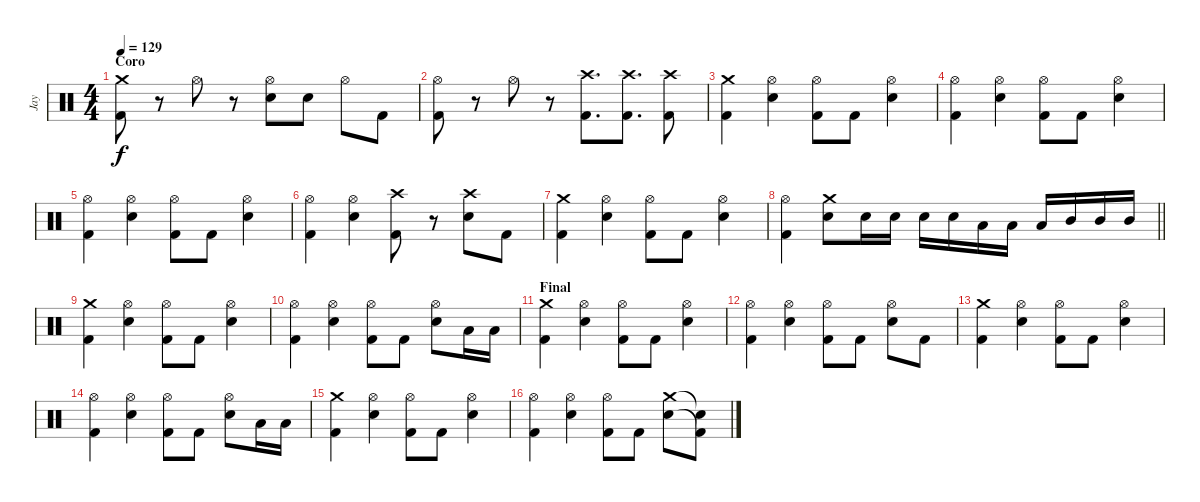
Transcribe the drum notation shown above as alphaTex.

\track ("Jay" "Jay") {instrument percussion}
\staff {score}
\articulation defaults
\ts (4 4)
\section ("" "Coro")
\tempo 129
\clef neutral
\ks c
("Crash medium (hit)" "Kick (hit) 2").8{dy f} r.8 "Hi-Hat (open)".8 r.8 ("Hi-Hat (open)" "Electric Snare (hit)").8 "Electric Snare (hit)".8 "Hi-Hat (open)".8 "Kick (hit) 2".8 |
("Hi-Hat (open)" "Kick (hit) 2").8 r.8 "Hi-Hat (open)".8 r.8 ("Crash high (hit)" "Kick (hit) 2").8{d} ("Crash high (hit)" "Kick (hit) 2").8{d} ("Crash high (hit)" "Kick (hit) 2").8 |
("Crash medium (hit)" "Kick (hit) 2").4 ("Hi-Hat (open)" "Electric Snare (hit)").4 ("Hi-Hat (open)" "Kick (hit) 2").8 "Kick (hit) 2".8 ("Hi-Hat (open)" "Electric Snare (hit)").4 |
("Hi-Hat (open)" "Kick (hit) 2").4 ("Hi-Hat (open)" "Electric Snare (hit)").4 ("Hi-Hat (open)" "Kick (hit) 2").8 "Kick (hit) 2".8 ("Hi-Hat (open)" "Electric Snare (hit)").4 |
("Hi-Hat (open)" "Kick (hit) 2").4 ("Hi-Hat (open)" "Electric Snare (hit)").4 ("Hi-Hat (open)" "Kick (hit) 2").8 "Kick (hit) 2".8 ("Hi-Hat (open)" "Electric Snare (hit)").4 |
("Hi-Hat (open)" "Kick (hit) 2").4 ("Hi-Hat (open)" "Electric Snare (hit)").4 ("Crash high (hit)" "Kick (hit) 2").8 r.8 ("Crash high (hit)" "Electric Snare (hit)").8 "Kick (hit) 2".8 |
("Crash medium (hit)" "Kick (hit) 2").4 ("Hi-Hat (open)" "Electric Snare (hit)").4 ("Hi-Hat (open)" "Kick (hit) 2").8 "Kick (hit) 2".8 ("Hi-Hat (open)" "Electric Snare (hit)").4 |
\barLineRight lightlight
("Hi-Hat (open)" "Kick (hit) 2").4 ("Crash medium (hit)" "Electric Snare (hit)").8 "Electric Snare (hit)".16 "Electric Snare (hit)".16 "Electric Snare (hit)".16 "Electric Snare (hit)".16 "Low Tom (hit)".16 "Low Tom (hit)".16 "Low Tom (hit)".16 "Mid Tom (hit)".16 "Mid Tom (hit)".16 "Mid Tom (hit)".16 |
("Crash medium (hit)" "Kick (hit) 2").4 ("Hi-Hat (open)" "Electric Snare (hit)").4 ("Hi-Hat (open)" "Kick (hit) 2").8 "Kick (hit) 2".8 ("Hi-Hat (open)" "Electric Snare (hit)").4 |
("Hi-Hat (open)" "Kick (hit) 2").4 ("Hi-Hat (open)" "Electric Snare (hit)").4 ("Hi-Hat (open)" "Kick (hit) 2").8 "Kick (hit) 2".8 ("Hi-Hat (open)" "Electric Snare (hit)").8 "Low Tom (hit)".16 "Low Tom (hit)".16 |
\section ("" "Final")
("Crash medium (hit)" "Kick (hit) 2").4 ("Hi-Hat (open)" "Electric Snare (hit)").4 ("Hi-Hat (open)" "Kick (hit) 2").8 "Kick (hit) 2".8 ("Hi-Hat (open)" "Electric Snare (hit)").4 |
("Hi-Hat (open)" "Kick (hit) 2").4 ("Hi-Hat (open)" "Electric Snare (hit)").4 ("Hi-Hat (open)" "Kick (hit) 2").8 "Kick (hit) 2".8 ("Hi-Hat (open)" "Electric Snare (hit)").8 "Kick (hit) 2".8 |
("Crash medium (hit)" "Kick (hit) 2").4 ("Hi-Hat (open)" "Electric Snare (hit)").4 ("Hi-Hat (open)" "Kick (hit) 2").8 "Kick (hit) 2".8 ("Hi-Hat (open)" "Electric Snare (hit)").4 |
("Hi-Hat (open)" "Kick (hit) 2").4 ("Hi-Hat (open)" "Electric Snare (hit)").4 ("Hi-Hat (open)" "Kick (hit) 2").8 "Kick (hit) 2".8 ("Hi-Hat (open)" "Electric Snare (hit)").8 "Low Tom (hit)".16 "Low Tom (hit)".16 |
("Crash medium (hit)" "Kick (hit) 2").4 ("Hi-Hat (open)" "Electric Snare (hit)").4 ("Hi-Hat (open)" "Kick (hit) 2").8 "Kick (hit) 2".8 ("Hi-Hat (open)" "Electric Snare (hit)").4 |
("Hi-Hat (open)" "Kick (hit) 2").4 ("Hi-Hat (open)" "Electric Snare (hit)").4 ("Hi-Hat (open)" "Kick (hit) 2").8 "Kick (hit) 2".8 ("Crash medium (hit)" "Electric Snare (hit)").8 ("Snare (hit)"{t} "Kick (hit) 2"{t}).8
